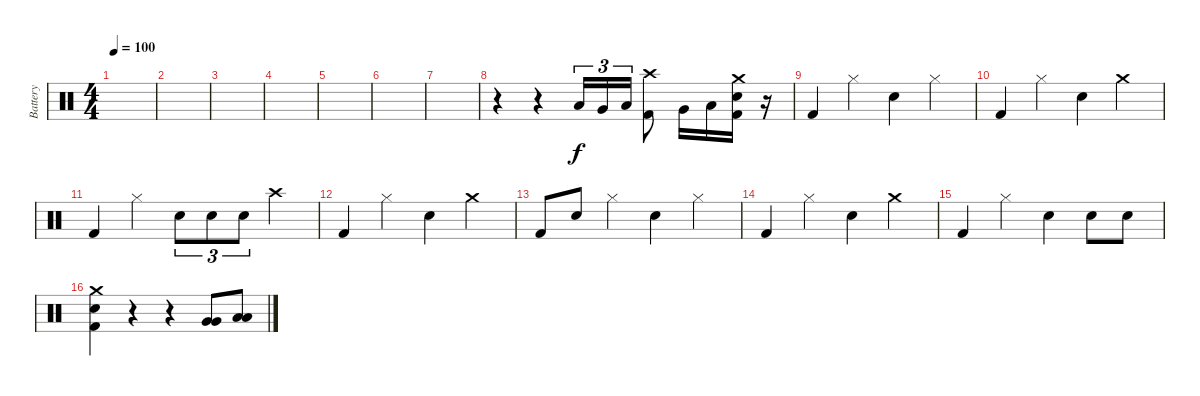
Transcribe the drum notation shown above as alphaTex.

\track ("Battery" "Battery") {instrument percussion}
\staff {score}
\articulation defaults
\ts (4 4)
\tempo 100
\clef neutral
\ks c
|
|
|
|
|
|
|
r.4 r.4 "Low Tom (hit)".16{tu (3 2)} "Very Low Tom (hit)".16{tu (3 2)} "Low Floor Tom (hit)".16{tu (3 2)} ("Kick (hit) 2" "Crash high (hit)").8 "Very Low Tom (hit)".16 "Low Floor Tom (hit)".16 ("Kick (hit) 2" "Snare (hit) 2" "Crash medium (hit)").16 r.16 |
"Kick (hit) 2".4 "Hi-Hat (closed)".4 "Snare (hit) 2".4 "Hi-Hat (closed)".4 |
"Kick (hit) 2".4 "Hi-Hat (closed)".4 "Snare (hit) 2".4 "Crash medium (hit)".4 |
"Kick (hit) 2".4 "Hi-Hat (closed)".4 "Snare (hit) 2".8{tu (3 2)} "Snare (hit) 2".8{tu (3 2)} "Snare (hit) 2".8{tu (3 2)} "Crash high (hit)".4 |
"Kick (hit) 2".4 "Hi-Hat (closed)".4 "Snare (hit) 2".4 "Crash medium (hit)".4 |
"Kick (hit) 2".8 "Snare (hit) 2".8 "Hi-Hat (closed)".4 "Snare (hit) 2".4 "Hi-Hat (closed)".4 |
"Kick (hit) 2".4 "Hi-Hat (closed)".4 "Snare (hit) 2".4 "Crash medium (hit)".4 |
"Kick (hit) 2".4 "Hi-Hat (closed)".4 "Snare (hit) 2".4 "Snare (hit) 2".8 "Snare (hit) 2".8 |
("Kick (hit) 2" "Snare (hit) 2" "Crash medium (hit)").4 r.4 r.4 ("Very Low Tom (hit)" "Very Low Tom (hit)").8 ("Low Floor Tom (hit)" "Low Floor Tom (hit)").8
